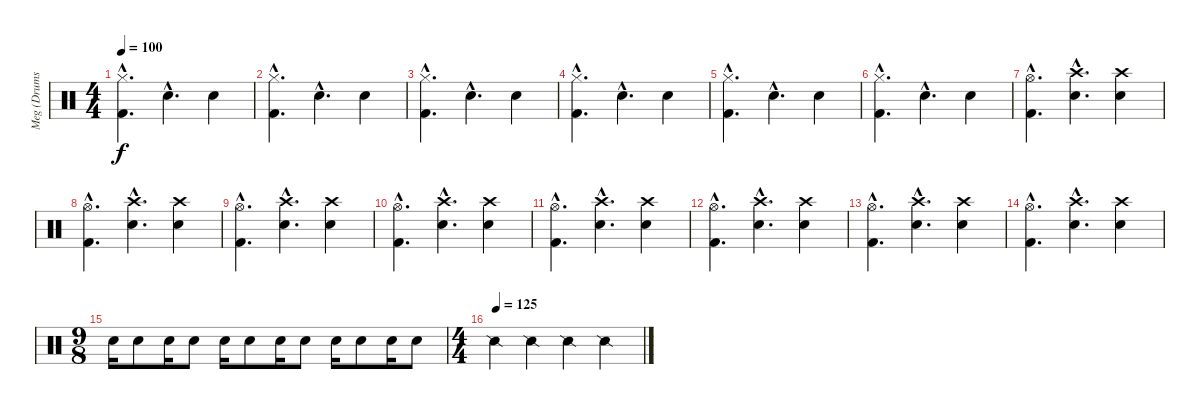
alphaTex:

\track ("Meg (Drums)" "Meg (Drums") {instrument percussion}
\staff {score}
\articulation defaults
\ts (4 4)
\tempo 100
\clef neutral
\ks c
("Hi-Hat (closed)"{hac} "Kick (hit) 2"{hac}).4{d dy f} "Snare (hit) 2"{hac}.4{d} "Snare (hit) 2".4 |
("Hi-Hat (closed)"{hac} "Kick (hit) 2"{hac}).4{d} "Snare (hit) 2"{hac}.4{d} "Snare (hit) 2".4 |
("Hi-Hat (closed)"{hac} "Kick (hit) 2"{hac}).4{d} "Snare (hit) 2"{hac}.4{d} "Snare (hit) 2".4 |
("Hi-Hat (closed)"{hac} "Kick (hit) 2"{hac}).4{d} "Snare (hit) 2"{hac}.4{d} "Snare (hit) 2".4 |
("Hi-Hat (closed)"{hac} "Kick (hit) 2"{hac}).4{d} "Snare (hit) 2"{hac}.4{d} "Snare (hit) 2".4 |
("Hi-Hat (closed)"{hac} "Kick (hit) 2"{hac}).4{d} "Snare (hit) 2"{hac}.4{d} "Snare (hit) 2".4 |
("Hi-Hat (open)"{hac} "Kick (hit) 2"{hac}).4{d} ("Crash high (hit)"{hac} "Snare (hit) 2"{hac}).4{d} ("Crash high (hit)" "Snare (hit) 2").4 |
("Hi-Hat (open)"{hac} "Kick (hit) 2"{hac}).4{d} ("Crash high (hit)"{hac} "Snare (hit) 2"{hac}).4{d} ("Crash high (hit)" "Snare (hit) 2").4 |
("Hi-Hat (open)"{hac} "Kick (hit) 2"{hac}).4{d} ("Crash high (hit)"{hac} "Snare (hit) 2"{hac}).4{d} ("Crash high (hit)" "Snare (hit) 2").4 |
("Hi-Hat (open)"{hac} "Kick (hit) 2"{hac}).4{d} ("Crash high (hit)"{hac} "Snare (hit) 2"{hac}).4{d} ("Crash high (hit)" "Snare (hit) 2").4 |
("Hi-Hat (open)"{hac} "Kick (hit) 2"{hac}).4{d} ("Crash high (hit)"{hac} "Snare (hit) 2"{hac}).4{d} ("Crash high (hit)" "Snare (hit) 2").4 |
("Hi-Hat (open)"{hac} "Kick (hit) 2"{hac}).4{d} ("Crash high (hit)"{hac} "Snare (hit) 2"{hac}).4{d} ("Crash high (hit)" "Snare (hit) 2").4 |
("Hi-Hat (open)"{hac} "Kick (hit) 2"{hac}).4{d} ("Crash high (hit)"{hac} "Snare (hit) 2"{hac}).4{d} ("Crash high (hit)" "Snare (hit) 2").4 |
("Hi-Hat (open)"{hac} "Kick (hit) 2"{hac}).4{d} ("Crash high (hit)"{hac} "Snare (hit) 2"{hac}).4{d} ("Crash high (hit)" "Snare (hit) 2").4 |
\ts (9 8)
"Snare (hit) 2".16 "Snare (hit) 2".8 "Snare (hit) 2".16 "Snare (hit) 2".8 "Snare (hit) 2".16 "Snare (hit) 2".8 "Snare (hit) 2".16 "Snare (hit) 2".8 "Snare (hit) 2".16 "Snare (hit) 2".8 "Snare (hit) 2".16 "Snare (hit) 2".8 |
\ts (4 4)
\tempo (125)
"Snare (side stick) 2".4 "Snare (side stick) 2".4 "Snare (side stick) 2".4 "Snare (side stick) 2".4
